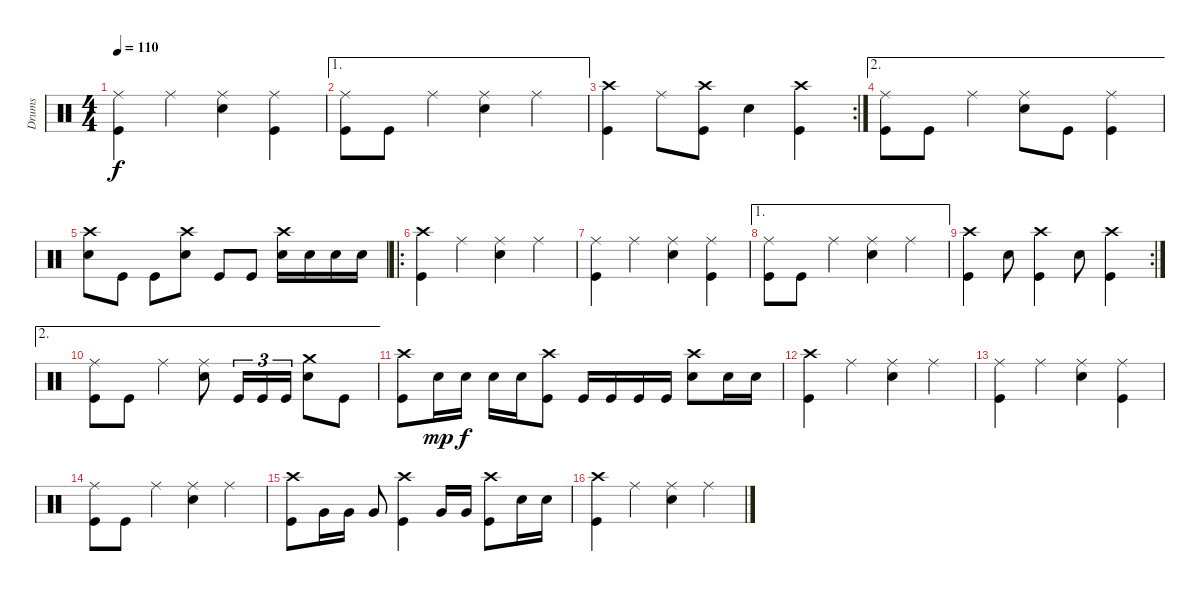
\track ("Drums" "Drums") {instrument percussion}
\staff {score}
\articulation defaults
\ts (4 4)
\tempo 110
\clef neutral
\ks c
("Ride (middle)" "Kick (hit)").4{dy f} "Ride (middle)".4 ("Ride (middle)" "Electric Snare (hit)").4 ("Ride (middle)" "Kick (hit)").4 |
\ae 1
("Ride (middle)" "Kick (hit)").8 "Kick (hit)".8 "Ride (middle)".4 ("Ride (middle)" "Electric Snare (hit)").4 "Ride (middle)".4 |
\rc 2
("Crash high (hit)" "Kick (hit)").4 "Ride (middle)".8 ("Crash high (hit)" "Kick (hit)").8 "Electric Snare (hit)".4 ("Crash high (hit)" "Kick (hit)").4 |
\ae 2
("Ride (middle)" "Kick (hit)").8 "Kick (hit)".8 "Ride (middle)".4 ("Ride (middle)" "Electric Snare (hit)").8 "Kick (hit)".8 ("Ride (middle)" "Kick (hit)").4 |
("Crash high (hit)" "Electric Snare (hit)").8 "Kick (hit)".8 "Kick (hit)".8 ("Crash high (hit)" "Electric Snare (hit)").8 "Kick (hit)".8 "Kick (hit)".8 ("Crash high (hit)" "Electric Snare (hit)").16 "Electric Snare (hit)".16 "Electric Snare (hit)".16 "Electric Snare (hit)".16 |
\ro
("Crash high (hit)" "Kick (hit)").4 "Ride (middle)".4 ("Ride (middle)" "Electric Snare (hit)").4 "Ride (middle)".4 |
("Ride (middle)" "Kick (hit)").4 "Ride (middle)".4 ("Ride (middle)" "Electric Snare (hit)").4 ("Ride (middle)" "Kick (hit)").4 |
\ae 1
("Ride (middle)" "Kick (hit)").8 "Kick (hit)".8 "Ride (middle)".4 ("Ride (middle)" "Electric Snare (hit)").4 "Ride (middle)".4 |
\rc 2
("Crash high (hit)" "Kick (hit)").4 "Electric Snare (hit)".8 ("Crash high (hit)" "Kick (hit)").4 "Electric Snare (hit)".8 ("Crash high (hit)" "Kick (hit)").4 |
\ae 2
("Ride (middle)" "Kick (hit)").8 "Kick (hit)".8 "Ride (middle)".4 ("Ride (middle)" "Electric Snare (hit)").8 "Kick (hit)".16{tu (3 2)} "Kick (hit)".16{tu (3 2)} "Kick (hit)".16{tu (3 2)} ("Crash medium (hit)" "Electric Snare (hit)").8 "Kick (hit)".8 |
("Crash high (hit)" "Kick (hit)").8 "Electric Snare (hit)".16{dy mp} "Electric Snare (hit)".16{dy f} "Electric Snare (hit)".16 "Electric Snare (hit)".16 ("Crash high (hit)" "Kick (hit)").8 "Kick (hit)".16 "Kick (hit)".16 "Kick (hit)".16 "Kick (hit)".16 ("Crash high (hit)" "Electric Snare (hit)").8 "Electric Snare (hit)".16 "Electric Snare (hit)".16 |
("Crash high (hit)" "Kick (hit)").4{volume 13} "Ride (middle)".4 ("Ride (middle)" "Electric Snare (hit)").4 "Ride (middle)".4 |
("Ride (middle)" "Kick (hit)").4 "Ride (middle)".4 ("Ride (middle)" "Electric Snare (hit)").4 ("Ride (middle)" "Kick (hit)").4 |
("Ride (middle)" "Kick (hit)").8{volume 11} "Kick (hit)".8 "Ride (middle)".4 ("Ride (middle)" "Electric Snare (hit)").4 "Ride (middle)".4 |
("Crash high (hit)" "Kick (hit)").8 "Very Low Tom (hit)".16 "Very Low Tom (hit)".16 "Very Low Tom (hit)".8 ("Crash high (hit)" "Kick (hit)").4 "Very Low Tom (hit)".16 "Very Low Tom (hit)".16 ("Crash high (hit)" "Kick (hit)").8 "Electric Snare (hit)".16 "Electric Snare (hit)".16 |
("Crash high (hit)" "Kick (hit)").4{volume 9} "Ride (middle)".4 ("Ride (middle)" "Electric Snare (hit)").4 "Ride (middle)".4
